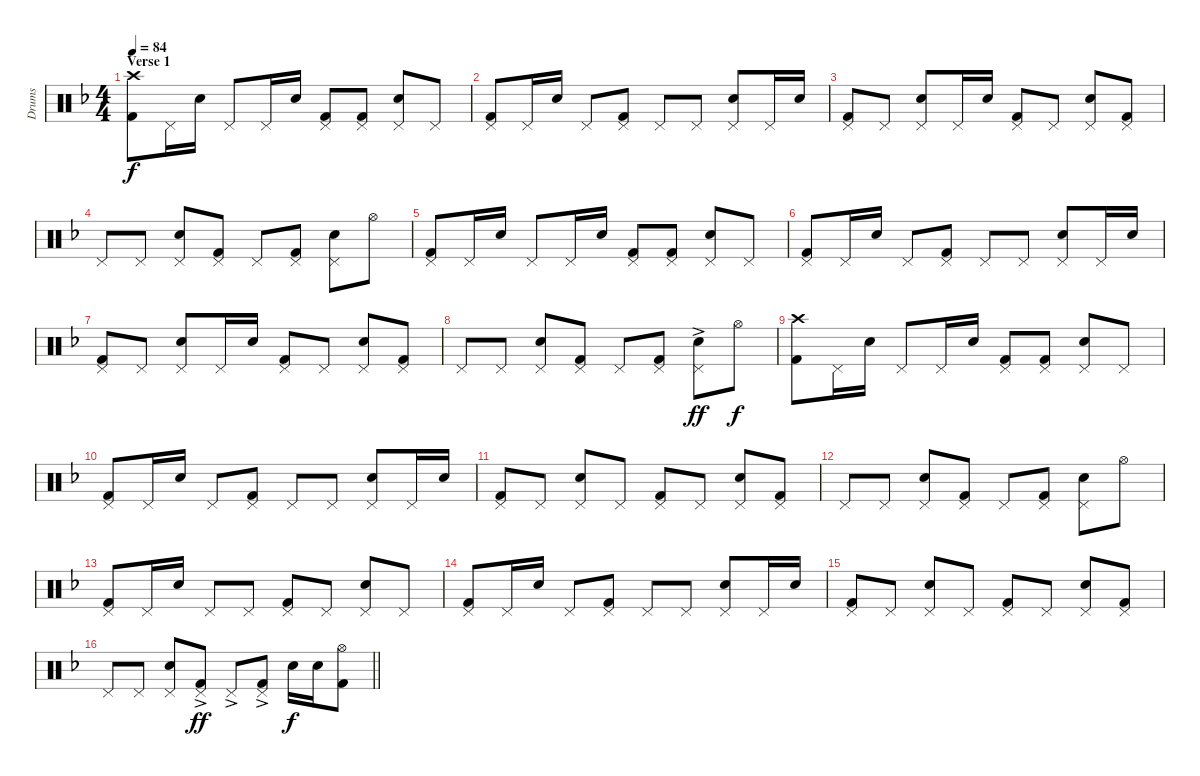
\track ("Drums" "Drums") {instrument percussion}
\staff {score}
\articulation defaults
\ts (4 4)
\section ("" "Verse 1")
\tempo 84
\clef neutral
\ks f
("Crash high (hit)" "Kick (hit) 2").8{dy f} "Pedal Hi-Hat (hit)".16 "Snare (hit) 2".16 "Pedal Hi-Hat (hit)".8 "Pedal Hi-Hat (hit)".16 "Snare (hit) 2".16 ("Pedal Hi-Hat (hit)" "Kick (hit) 2").8 ("Pedal Hi-Hat (hit)" "Kick (hit) 2").8 ("Pedal Hi-Hat (hit)" "Snare (hit) 2").8 "Pedal Hi-Hat (hit)".8 |
("Pedal Hi-Hat (hit)" "Kick (hit) 2").8 "Pedal Hi-Hat (hit)".16 "Snare (hit) 2".16 "Pedal Hi-Hat (hit)".8 ("Pedal Hi-Hat (hit)" "Kick (hit) 2").8 "Pedal Hi-Hat (hit)".8 "Pedal Hi-Hat (hit)".8 ("Pedal Hi-Hat (hit)" "Snare (hit) 2").8 "Pedal Hi-Hat (hit)".16 "Snare (hit) 2".16 |
("Pedal Hi-Hat (hit)" "Kick (hit) 2").8 "Pedal Hi-Hat (hit)".8 ("Pedal Hi-Hat (hit)" "Snare (hit) 2").8 "Pedal Hi-Hat (hit)".16 "Snare (hit) 2".16 ("Pedal Hi-Hat (hit)" "Kick (hit) 2").8 "Pedal Hi-Hat (hit)".8 ("Pedal Hi-Hat (hit)" "Snare (hit) 2").8 ("Pedal Hi-Hat (hit)" "Kick (hit) 2").8 |
"Pedal Hi-Hat (hit)".8 "Pedal Hi-Hat (hit)".8 ("Pedal Hi-Hat (hit)" "Snare (hit) 2").8 ("Pedal Hi-Hat (hit)" "Kick (hit) 2").8 "Pedal Hi-Hat (hit)".8 ("Pedal Hi-Hat (hit)" "Kick (hit) 2").8 ("Pedal Hi-Hat (hit)" "Snare (hit) 2").8 "Hi-Hat (open)".8 |
("Pedal Hi-Hat (hit)" "Kick (hit) 2").8 "Pedal Hi-Hat (hit)".16 "Snare (hit) 2".16 "Pedal Hi-Hat (hit)".8 "Pedal Hi-Hat (hit)".16 "Snare (hit) 2".16 ("Pedal Hi-Hat (hit)" "Kick (hit) 2").8 ("Pedal Hi-Hat (hit)" "Kick (hit) 2").8 ("Pedal Hi-Hat (hit)" "Snare (hit) 2").8 "Pedal Hi-Hat (hit)".8 |
("Pedal Hi-Hat (hit)" "Kick (hit) 2").8 "Pedal Hi-Hat (hit)".16 "Snare (hit) 2".16 "Pedal Hi-Hat (hit)".8 ("Pedal Hi-Hat (hit)" "Kick (hit) 2").8 "Pedal Hi-Hat (hit)".8 "Pedal Hi-Hat (hit)".8 ("Pedal Hi-Hat (hit)" "Snare (hit) 2").8 "Pedal Hi-Hat (hit)".16 "Snare (hit) 2".16 |
("Pedal Hi-Hat (hit)" "Kick (hit) 2").8 "Pedal Hi-Hat (hit)".8 ("Pedal Hi-Hat (hit)" "Snare (hit) 2").8 "Pedal Hi-Hat (hit)".16 "Snare (hit) 2".16 ("Pedal Hi-Hat (hit)" "Kick (hit) 2").8 "Pedal Hi-Hat (hit)".8 ("Pedal Hi-Hat (hit)" "Snare (hit) 2").8 ("Pedal Hi-Hat (hit)" "Kick (hit) 2").8 |
"Pedal Hi-Hat (hit)".8 "Pedal Hi-Hat (hit)".8 ("Pedal Hi-Hat (hit)" "Snare (hit) 2").8 ("Pedal Hi-Hat (hit)" "Kick (hit) 2").8 "Pedal Hi-Hat (hit)".8 ("Pedal Hi-Hat (hit)" "Kick (hit) 2").8 ("Pedal Hi-Hat (hit)" "Snare (hit) 2"{ac}).8{dy ff} "Hi-Hat (open)".8{dy f} |
("Crash high (hit)" "Kick (hit) 2").8 "Pedal Hi-Hat (hit)".16 "Snare (hit) 2".16 "Pedal Hi-Hat (hit)".8 "Pedal Hi-Hat (hit)".16 "Snare (hit) 2".16 ("Pedal Hi-Hat (hit)" "Kick (hit) 2").8 ("Pedal Hi-Hat (hit)" "Kick (hit) 2").8 ("Pedal Hi-Hat (hit)" "Snare (hit) 2").8 "Pedal Hi-Hat (hit)".8 |
("Pedal Hi-Hat (hit)" "Kick (hit) 2").8 "Pedal Hi-Hat (hit)".16 "Snare (hit) 2".16 "Pedal Hi-Hat (hit)".8 ("Pedal Hi-Hat (hit)" "Kick (hit) 2").8 "Pedal Hi-Hat (hit)".8 "Pedal Hi-Hat (hit)".8 ("Pedal Hi-Hat (hit)" "Snare (hit) 2").8 "Pedal Hi-Hat (hit)".16 "Snare (hit) 2".16 |
("Pedal Hi-Hat (hit)" "Kick (hit) 2").8 "Pedal Hi-Hat (hit)".8 ("Pedal Hi-Hat (hit)" "Snare (hit) 2").8 "Pedal Hi-Hat (hit)".8 ("Pedal Hi-Hat (hit)" "Kick (hit) 2").8 "Pedal Hi-Hat (hit)".8 ("Pedal Hi-Hat (hit)" "Snare (hit) 2").8 ("Pedal Hi-Hat (hit)" "Kick (hit) 2").8 |
"Pedal Hi-Hat (hit)".8 "Pedal Hi-Hat (hit)".8 ("Pedal Hi-Hat (hit)" "Snare (hit) 2").8 ("Pedal Hi-Hat (hit)" "Kick (hit) 2").8 "Pedal Hi-Hat (hit)".8 ("Pedal Hi-Hat (hit)" "Kick (hit) 2").8 ("Pedal Hi-Hat (hit)" "Snare (hit) 2").8 "Hi-Hat (open)".8 |
("Pedal Hi-Hat (hit)" "Kick (hit) 2").8 "Pedal Hi-Hat (hit)".16 "Snare (hit) 2".16 "Pedal Hi-Hat (hit)".8 "Pedal Hi-Hat (hit)".8 ("Pedal Hi-Hat (hit)" "Kick (hit) 2").8 "Pedal Hi-Hat (hit)".8 ("Pedal Hi-Hat (hit)" "Snare (hit) 2").8 "Pedal Hi-Hat (hit)".8 |
("Pedal Hi-Hat (hit)" "Kick (hit) 2").8 "Pedal Hi-Hat (hit)".16 "Snare (hit) 2".16 "Pedal Hi-Hat (hit)".8 ("Pedal Hi-Hat (hit)" "Kick (hit) 2").8 "Pedal Hi-Hat (hit)".8 "Pedal Hi-Hat (hit)".8 ("Pedal Hi-Hat (hit)" "Snare (hit) 2").8 "Pedal Hi-Hat (hit)".16 "Snare (hit) 2".16 |
("Pedal Hi-Hat (hit)" "Kick (hit) 2").8 "Pedal Hi-Hat (hit)".8 ("Pedal Hi-Hat (hit)" "Snare (hit) 2").8 "Pedal Hi-Hat (hit)".8 ("Pedal Hi-Hat (hit)" "Kick (hit) 2").8 "Pedal Hi-Hat (hit)".8 ("Pedal Hi-Hat (hit)" "Snare (hit) 2").8 ("Pedal Hi-Hat (hit)" "Kick (hit) 2").8 |
\barLineRight lightlight "Pedal Hi-Hat (hit)".8 "Pedal Hi-Hat (hit)".8
("Pedal Hi-Hat (hit)" "Snare (hit) 2").8 ("Pedal Hi-Hat (hit)"{ac} "Kick (hit) 2"{ac}).8{dy ff} "Pedal Hi-Hat (hit)"{ac}.8 ("Pedal Hi-Hat (hit)"{ac} "Kick (hit) 2"{ac}).8 "Snare (hit) 2".16{dy f} "Snare (hit) 2".16 ("Hi-Hat (open)" "Kick (hit) 2").8
